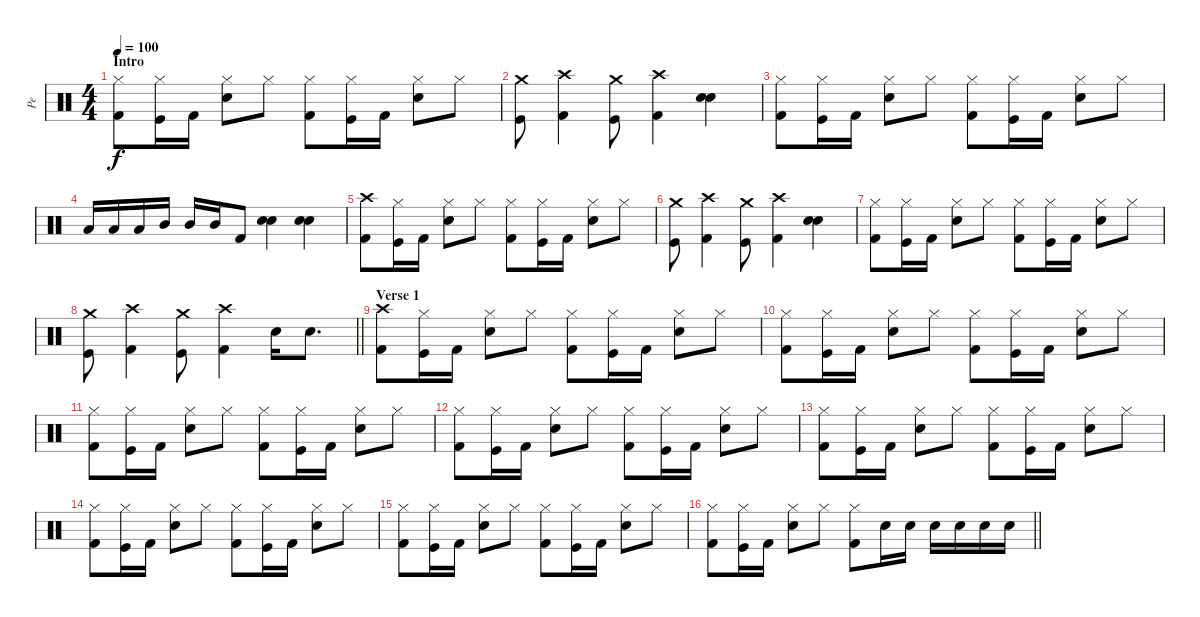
\track ("Pe" "Pe") {instrument percussion}
\staff {score}
\articulation defaults
\ts (4 4)
\section ("" "Intro")
\tempo 100
\clef neutral
\ks c
("Kick (hit) 2" "Hi-Hat (closed)").8{dy f volume 15} ("Kick (hit)" "Hi-Hat (closed)").16 "Kick (hit) 2".16 ("Electric Snare (hit)" "Hi-Hat (closed)").8 "Hi-Hat (closed)".8 ("Kick (hit) 2" "Hi-Hat (closed)").8 ("Kick (hit)" "Hi-Hat (closed)").16 "Kick (hit) 2".16 ("Electric Snare (hit)" "Hi-Hat (closed)").8 "Hi-Hat (closed)".8 |
("Kick (hit)" "Crash medium (hit)").8 ("Kick (hit) 2" "Crash high (hit)").4 ("Kick (hit)" "Crash medium (hit)").8 ("Kick (hit) 2" "Crash high (hit)").4 ("Electric Snare (hit)" "Electric Snare (hit)").4 |
("Kick (hit) 2" "Hi-Hat (closed)").8 ("Kick (hit)" "Hi-Hat (closed)").16 "Kick (hit) 2".16 ("Electric Snare (hit)" "Hi-Hat (closed)").8 "Hi-Hat (closed)".8 ("Kick (hit) 2" "Hi-Hat (closed)").8 ("Kick (hit)" "Hi-Hat (closed)").16 "Kick (hit) 2".16 ("Electric Snare (hit)" "Hi-Hat (closed)").8 "Hi-Hat (closed)".8 |
"Low Tom (hit)".16 "Low Tom (hit)".16 "Low Tom (hit)".16 "Mid Tom (hit)".16 "Mid Tom (hit)".16 "Mid Tom (hit)".16 "Kick (hit) 2".8 ("Electric Snare (hit)" "Electric Snare (hit)").4 ("Electric Snare (hit)" "Electric Snare (hit)").4 |
("Kick (hit) 2" "Crash high (hit)").8 ("Kick (hit)" "Hi-Hat (closed)").16 "Kick (hit) 2".16 ("Electric Snare (hit)" "Hi-Hat (closed)").8 "Hi-Hat (closed)".8 ("Kick (hit) 2" "Hi-Hat (closed)").8 ("Kick (hit)" "Hi-Hat (closed)").16 "Kick (hit) 2".16 ("Electric Snare (hit)" "Hi-Hat (closed)").8 "Hi-Hat (closed)".8 |
("Kick (hit)" "Crash medium (hit)").8 ("Kick (hit) 2" "Crash high (hit)").4 ("Kick (hit)" "Crash medium (hit)").8 ("Kick (hit) 2" "Crash high (hit)").4 ("Electric Snare (hit)" "Electric Snare (hit)").4 |
("Kick (hit) 2" "Hi-Hat (closed)").8 ("Kick (hit)" "Hi-Hat (closed)").16 "Kick (hit) 2".16 ("Electric Snare (hit)" "Hi-Hat (closed)").8 "Hi-Hat (closed)".8 ("Kick (hit) 2" "Hi-Hat (closed)").8 ("Kick (hit)" "Hi-Hat (closed)").16 "Kick (hit) 2".16 ("Electric Snare (hit)" "Hi-Hat (closed)").8 "Hi-Hat (closed)".8 |
\barLineRight lightlight
("Kick (hit)" "Crash medium (hit)").8 ("Kick (hit) 2" "Crash high (hit)").4 ("Kick (hit)" "Crash medium (hit)").8 ("Kick (hit) 2" "Crash high (hit)").4 "Electric Snare (hit)".16 "Electric Snare (hit)".8{d} |
\section ("" "Verse 1")
("Kick (hit) 2" "Crash high (hit)").8 ("Kick (hit)" "Hi-Hat (closed)").16 "Kick (hit) 2".16 ("Electric Snare (hit)" "Hi-Hat (closed)").8 "Hi-Hat (closed)".8 ("Kick (hit) 2" "Hi-Hat (closed)").8 ("Kick (hit)" "Hi-Hat (closed)").16 "Kick (hit) 2".16 ("Electric Snare (hit)" "Hi-Hat (closed)").8 "Hi-Hat (closed)".8 |
("Kick (hit) 2" "Hi-Hat (closed)").8 ("Kick (hit)" "Hi-Hat (closed)").16 "Kick (hit) 2".16 ("Electric Snare (hit)" "Hi-Hat (closed)").8 "Hi-Hat (closed)".8 ("Kick (hit) 2" "Hi-Hat (closed)").8 ("Kick (hit)" "Hi-Hat (closed)").16 "Kick (hit) 2".16 ("Electric Snare (hit)" "Hi-Hat (closed)").8 "Hi-Hat (closed)".8 |
("Kick (hit) 2" "Hi-Hat (closed)").8 ("Kick (hit)" "Hi-Hat (closed)").16 "Kick (hit) 2".16 ("Electric Snare (hit)" "Hi-Hat (closed)").8 "Hi-Hat (closed)".8 ("Kick (hit) 2" "Hi-Hat (closed)").8 ("Kick (hit)" "Hi-Hat (closed)").16 "Kick (hit) 2".16 ("Electric Snare (hit)" "Hi-Hat (closed)").8 "Hi-Hat (closed)".8 |
("Kick (hit) 2" "Hi-Hat (closed)").8 ("Kick (hit)" "Hi-Hat (closed)").16 "Kick (hit) 2".16 ("Electric Snare (hit)" "Hi-Hat (closed)").8 "Hi-Hat (closed)".8 ("Kick (hit) 2" "Hi-Hat (closed)").8 ("Kick (hit)" "Hi-Hat (closed)").16 "Kick (hit) 2".16 ("Electric Snare (hit)" "Hi-Hat (closed)").8 "Hi-Hat (closed)".8 |
("Kick (hit) 2" "Hi-Hat (closed)").8 ("Kick (hit)" "Hi-Hat (closed)").16 "Kick (hit) 2".16 ("Electric Snare (hit)" "Hi-Hat (closed)").8 "Hi-Hat (closed)".8 ("Kick (hit) 2" "Hi-Hat (closed)").8 ("Kick (hit)" "Hi-Hat (closed)").16 "Kick (hit) 2".16 ("Electric Snare (hit)" "Hi-Hat (closed)").8 "Hi-Hat (closed)".8 |
("Kick (hit) 2" "Hi-Hat (closed)").8 ("Kick (hit)" "Hi-Hat (closed)").16 "Kick (hit) 2".16 ("Electric Snare (hit)" "Hi-Hat (closed)").8 "Hi-Hat (closed)".8 ("Kick (hit) 2" "Hi-Hat (closed)").8 ("Kick (hit)" "Hi-Hat (closed)").16 "Kick (hit) 2".16 ("Electric Snare (hit)" "Hi-Hat (closed)").8 "Hi-Hat (closed)".8 |
("Kick (hit) 2" "Hi-Hat (closed)").8 ("Kick (hit)" "Hi-Hat (closed)").16 "Kick (hit) 2".16 ("Electric Snare (hit)" "Hi-Hat (closed)").8 "Hi-Hat (closed)".8 ("Kick (hit) 2" "Hi-Hat (closed)").8 ("Kick (hit)" "Hi-Hat (closed)").16 "Kick (hit) 2".16 ("Electric Snare (hit)" "Hi-Hat (closed)").8 "Hi-Hat (closed)".8 |
\barLineRight lightlight
("Kick (hit) 2" "Hi-Hat (closed)").8 ("Kick (hit)" "Hi-Hat (closed)").16 "Kick (hit) 2".16 ("Electric Snare (hit)" "Hi-Hat (closed)").8 "Hi-Hat (closed)".8 ("Kick (hit) 2" "Hi-Hat (closed)").8 "Electric Snare (hit)".16 "Electric Snare (hit)".16 "Electric Snare (hit)".16 "Electric Snare (hit)".16 "Electric Snare (hit)".16 "Electric Snare (hit)".16
